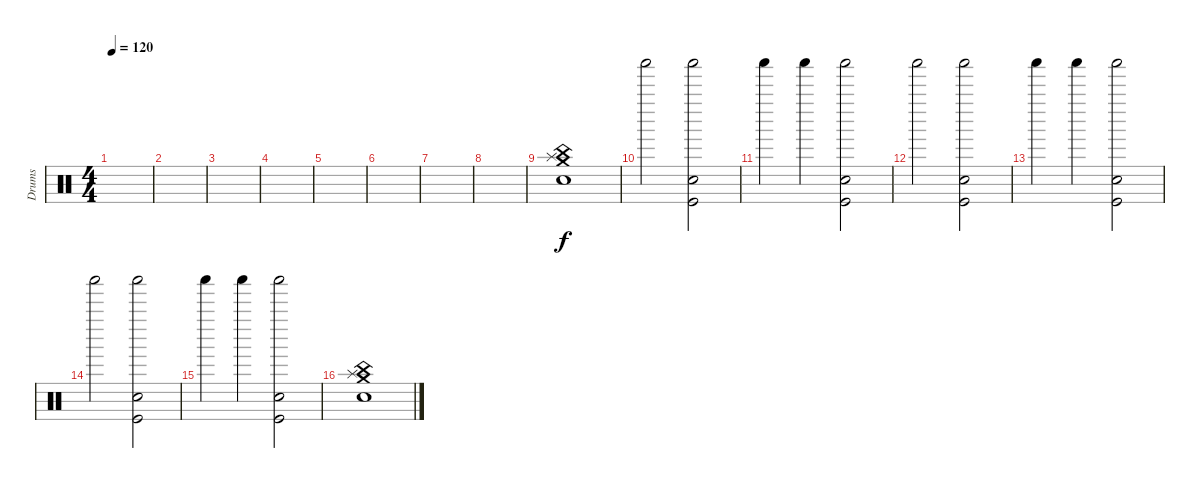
\track ("Drums" "Drums") {instrument percussion}
\staff {score}
\articulation defaults
\ts (4 4)
\tempo 120
\clef neutral
\ks c
|
|
|
|
|
|
|
|
("Electric Snare (hit)" "China (hit)" "Splash (hit)" "Crash medium (hit)").1 |
"Shaker (hit)".2 ("Shaker (hit)" "Snare (hit) 2" "Kick (hit)").2 |
"Shaker (hit)".4 "Shaker (hit)".4 ("Shaker (hit)" "Snare (hit) 2" "Kick (hit)").2 |
"Shaker (hit)".2 ("Shaker (hit)" "Snare (hit) 2" "Kick (hit)").2 |
"Shaker (hit)".4 "Shaker (hit)".4 ("Shaker (hit)" "Snare (hit) 2" "Kick (hit)").2 |
"Shaker (hit)".2 ("Shaker (hit)" "Snare (hit) 2" "Kick (hit)").2 |
"Shaker (hit)".4 "Shaker (hit)".4 ("Shaker (hit)" "Snare (hit) 2" "Kick (hit)").2 |
("Electric Snare (hit)" "China (hit)" "Splash (hit)" "Crash medium (hit)").1
